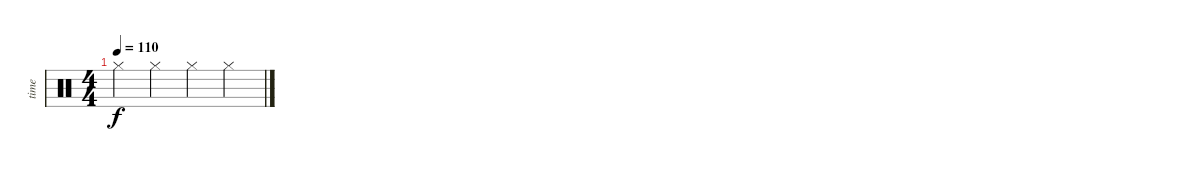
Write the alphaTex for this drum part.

\track ("time" "time") {instrument percussion}
\staff {score}
\articulation defaults
\ts (4 4)
\tempo 110
\clef neutral
\ks c "Hi-Hat (closed)".4{dy f} "Hi-Hat (closed)".4 "Hi-Hat (closed)".4 "Hi-Hat (closed)".4
